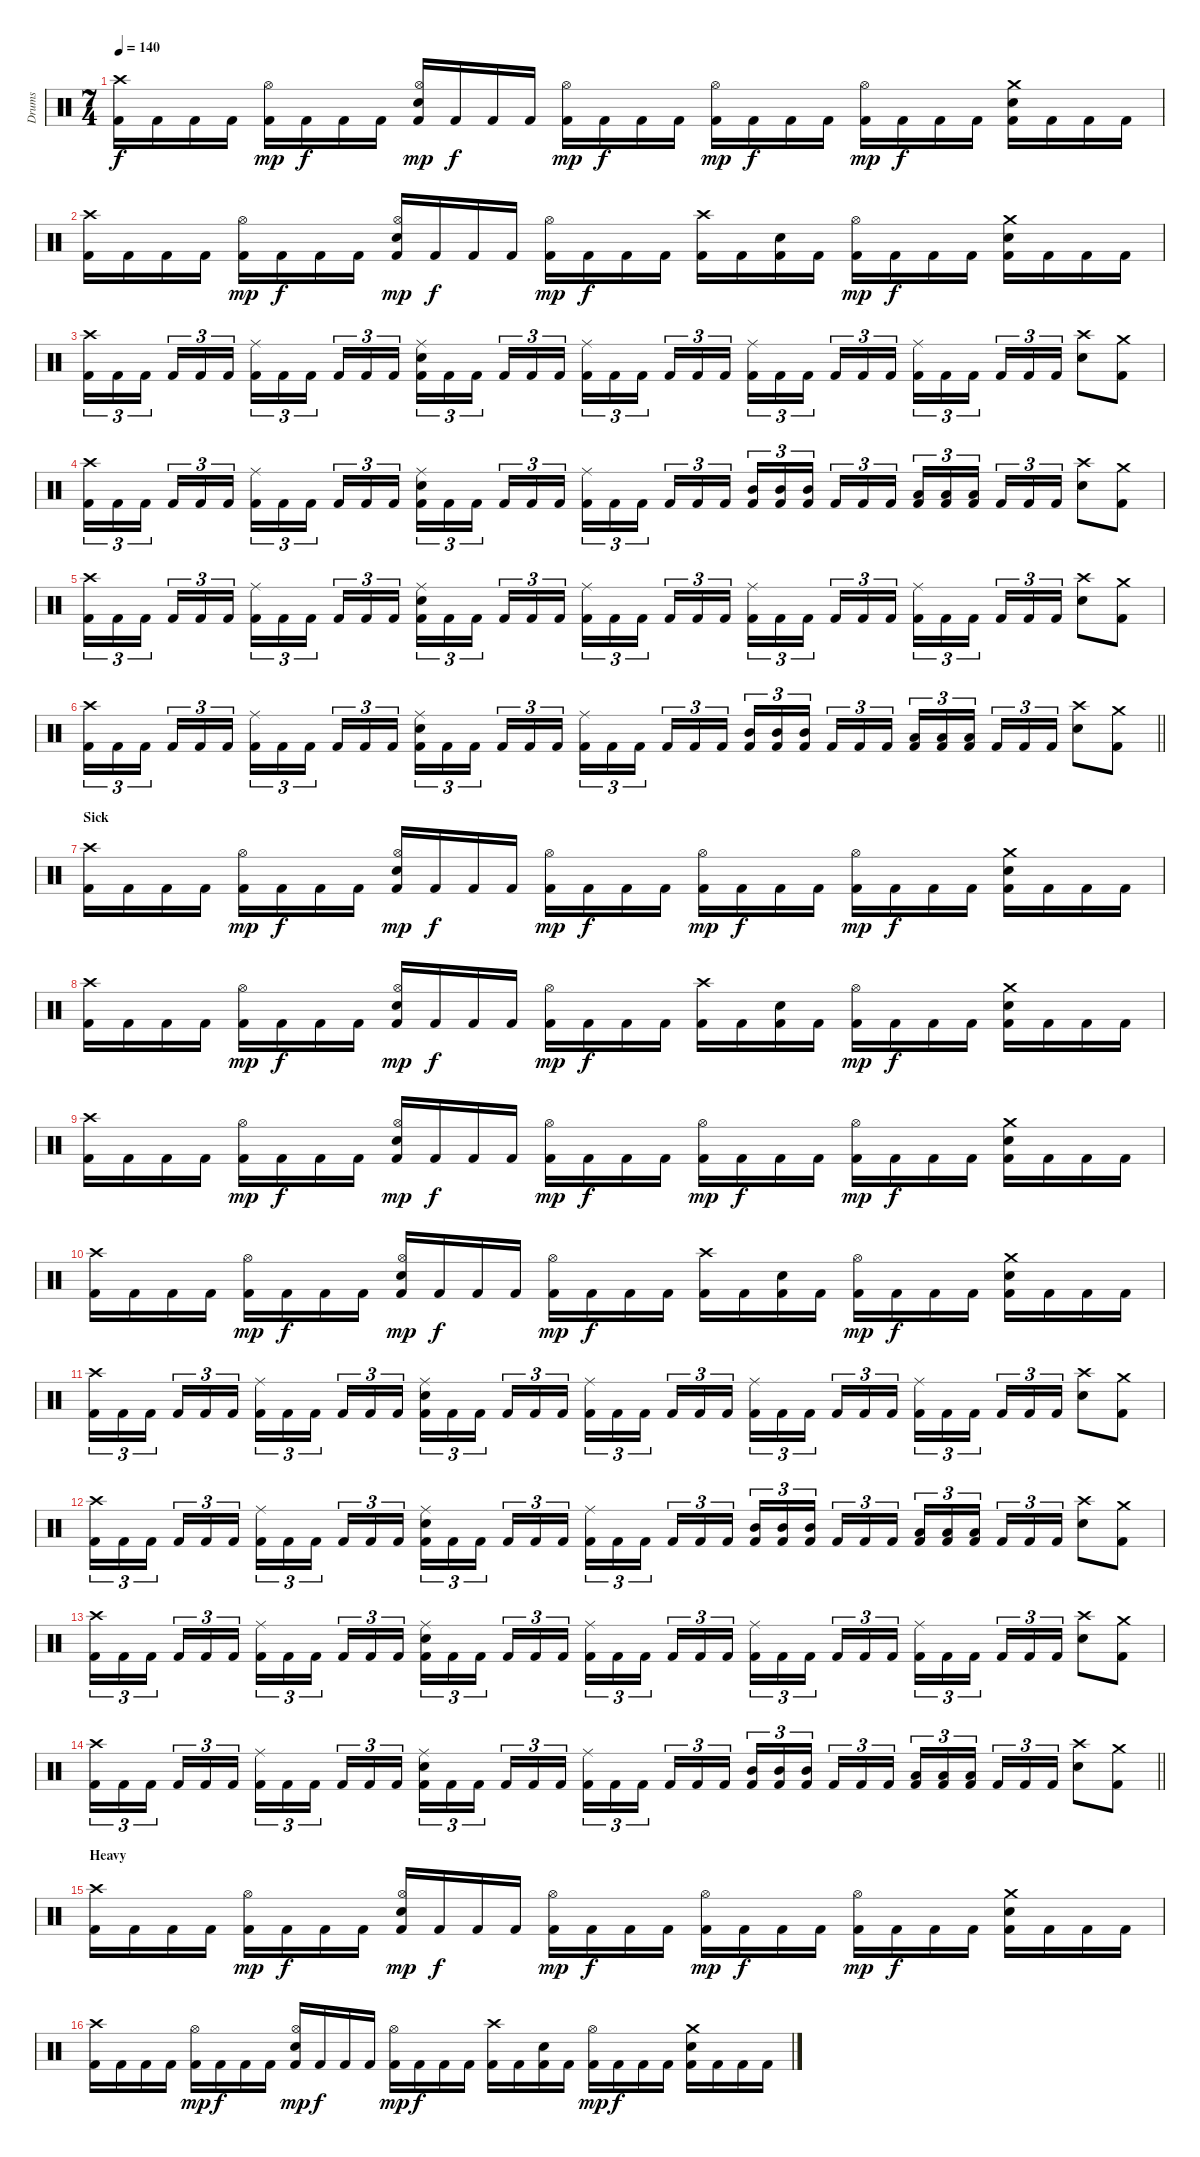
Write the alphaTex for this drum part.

\track ("Drums" "Drums") {instrument percussion}
\staff {score}
\articulation defaults
\ts (7 4)
\tempo 140
\clef neutral
\ks c
("Crash high (hit)" "Kick (hit) 2").16{dy f} "Kick (hit) 2".16 "Kick (hit) 2".16 "Kick (hit) 2".16 ("Hi-Hat (open)" "Kick (hit) 2").16{dy mp} "Kick (hit) 2".16{dy f} "Kick (hit) 2".16 "Kick (hit) 2".16 ("Hi-Hat (open)" "Snare (hit) 2" "Kick (hit) 2").16{dy mp} "Kick (hit) 2".16{dy f} "Kick (hit) 2".16 "Kick (hit) 2".16 ("Hi-Hat (open)" "Kick (hit) 2").16{dy mp} "Kick (hit) 2".16{dy f} "Kick (hit) 2".16 "Kick (hit) 2".16 ("Hi-Hat (open)" "Kick (hit) 2").16{dy mp} "Kick (hit) 2".16{dy f} "Kick (hit) 2".16 "Kick (hit) 2".16 ("Hi-Hat (open)" "Kick (hit) 2").16{dy mp} "Kick (hit) 2".16{dy f} "Kick (hit) 2".16 "Kick (hit) 2".16 ("Crash medium (hit)" "Snare (hit) 2" "Kick (hit) 2").16 "Kick (hit) 2".16 "Kick (hit) 2".16 "Kick (hit) 2".16 |
("Crash high (hit)" "Kick (hit) 2").16 "Kick (hit) 2".16 "Kick (hit) 2".16 "Kick (hit) 2".16 ("Hi-Hat (open)" "Kick (hit) 2").16{dy mp} "Kick (hit) 2".16{dy f} "Kick (hit) 2".16 "Kick (hit) 2".16 ("Hi-Hat (open)" "Snare (hit) 2" "Kick (hit) 2").16{dy mp} "Kick (hit) 2".16{dy f} "Kick (hit) 2".16 "Kick (hit) 2".16 ("Hi-Hat (open)" "Kick (hit) 2").16{dy mp} "Kick (hit) 2".16{dy f} "Kick (hit) 2".16 "Kick (hit) 2".16 ("Crash high (hit)" "Kick (hit) 2").16 "Kick (hit) 2".16 ("Snare (hit) 2" "Kick (hit) 2").16 "Kick (hit) 2".16 ("Hi-Hat (open)" "Kick (hit) 2").16{dy mp} "Kick (hit) 2".16{dy f} "Kick (hit) 2".16 "Kick (hit) 2".16 ("Crash medium (hit)" "Snare (hit) 2" "Kick (hit) 2").16 "Kick (hit) 2".16 "Kick (hit) 2".16 "Kick (hit) 2".16 |
("Crash high (hit)" "Kick (hit) 2").16{tu (3 2)} "Kick (hit) 2".16{tu (3 2)} "Kick (hit) 2".16{tu (3 2) beam splitsecondary} "Kick (hit) 2".16{tu (3 2)} "Kick (hit) 2".16{tu (3 2)} "Kick (hit) 2".16{tu (3 2)} ("Ride (middle)" "Kick (hit) 2").16{tu (3 2)} "Kick (hit) 2".16{tu (3 2)} "Kick (hit) 2".16{tu (3 2) beam splitsecondary} "Kick (hit) 2".16{tu (3 2)} "Kick (hit) 2".16{tu (3 2)} "Kick (hit) 2".16{tu (3 2)} ("Ride (middle)" "Snare (hit) 2" "Kick (hit) 2").16{tu (3 2)} "Kick (hit) 2".16{tu (3 2)} "Kick (hit) 2".16{tu (3 2) beam splitsecondary} "Kick (hit) 2".16{tu (3 2)} "Kick (hit) 2".16{tu (3 2)} "Kick (hit) 2".16{tu (3 2)} ("Ride (middle)" "Kick (hit) 2").16{tu (3 2)} "Kick (hit) 2".16{tu (3 2)} "Kick (hit) 2".16{tu (3 2) beam splitsecondary} "Kick (hit) 2".16{tu (3 2)} "Kick (hit) 2".16{tu (3 2)} "Kick (hit) 2".16{tu (3 2)} ("Ride (middle)" "Kick (hit) 2").16{tu (3 2)} "Kick (hit) 2".16{tu (3 2)} "Kick (hit) 2".16{tu (3 2) beam splitsecondary} "Kick (hit) 2".16{tu (3 2)} "Kick (hit) 2".16{tu (3 2)} "Kick (hit) 2".16{tu (3 2)} ("Ride (middle)" "Kick (hit) 2").16{tu (3 2)} "Kick (hit) 2".16{tu (3 2)} "Kick (hit) 2".16{tu (3 2) beam splitsecondary} "Kick (hit) 2".16{tu (3 2)} "Kick (hit) 2".16{tu (3 2)} "Kick (hit) 2".16{tu (3 2)} ("Crash high (hit)" "Snare (hit) 2").8 ("Crash medium (hit)" "Kick (hit) 2").8 |
("Crash high (hit)" "Kick (hit) 2").16{tu (3 2)} "Kick (hit) 2".16{tu (3 2)} "Kick (hit) 2".16{tu (3 2) beam splitsecondary} "Kick (hit) 2".16{tu (3 2)} "Kick (hit) 2".16{tu (3 2)} "Kick (hit) 2".16{tu (3 2)} ("Ride (middle)" "Kick (hit) 2").16{tu (3 2)} "Kick (hit) 2".16{tu (3 2)} "Kick (hit) 2".16{tu (3 2) beam splitsecondary} "Kick (hit) 2".16{tu (3 2)} "Kick (hit) 2".16{tu (3 2)} "Kick (hit) 2".16{tu (3 2)} ("Ride (middle)" "Snare (hit) 2" "Kick (hit) 2").16{tu (3 2)} "Kick (hit) 2".16{tu (3 2)} "Kick (hit) 2".16{tu (3 2) beam splitsecondary} "Kick (hit) 2".16{tu (3 2)} "Kick (hit) 2".16{tu (3 2)} "Kick (hit) 2".16{tu (3 2)} ("Ride (middle)" "Kick (hit) 2").16{tu (3 2)} "Kick (hit) 2".16{tu (3 2)} "Kick (hit) 2".16{tu (3 2) beam splitsecondary} "Kick (hit) 2".16{tu (3 2)} "Kick (hit) 2".16{tu (3 2)} "Kick (hit) 2".16{tu (3 2)} ("Mid Tom (hit)" "Kick (hit) 2").16{tu (3 2)} ("Mid Tom (hit)" "Kick (hit) 2").16{tu (3 2)} ("Mid Tom (hit)" "Kick (hit) 2").16{tu (3 2) beam splitsecondary} "Kick (hit) 2".16{tu (3 2)} "Kick (hit) 2".16{tu (3 2)} "Kick (hit) 2".16{tu (3 2)} ("Low Tom (hit)" "Kick (hit) 2").16{tu (3 2)} ("Low Tom (hit)" "Kick (hit) 2").16{tu (3 2)} ("Low Tom (hit)" "Kick (hit) 2").16{tu (3 2) beam splitsecondary} "Kick (hit) 2".16{tu (3 2)} "Kick (hit) 2".16{tu (3 2)} "Kick (hit) 2".16{tu (3 2)} ("Crash high (hit)" "Snare (hit) 2").8 ("Crash medium (hit)" "Kick (hit) 2").8 |
("Crash high (hit)" "Kick (hit) 2").16{tu (3 2)} "Kick (hit) 2".16{tu (3 2)} "Kick (hit) 2".16{tu (3 2) beam splitsecondary} "Kick (hit) 2".16{tu (3 2)} "Kick (hit) 2".16{tu (3 2)} "Kick (hit) 2".16{tu (3 2)} ("Ride (middle)" "Kick (hit) 2").16{tu (3 2)} "Kick (hit) 2".16{tu (3 2)} "Kick (hit) 2".16{tu (3 2) beam splitsecondary} "Kick (hit) 2".16{tu (3 2)} "Kick (hit) 2".16{tu (3 2)} "Kick (hit) 2".16{tu (3 2)} ("Ride (middle)" "Snare (hit) 2" "Kick (hit) 2").16{tu (3 2)} "Kick (hit) 2".16{tu (3 2)} "Kick (hit) 2".16{tu (3 2) beam splitsecondary} "Kick (hit) 2".16{tu (3 2)} "Kick (hit) 2".16{tu (3 2)} "Kick (hit) 2".16{tu (3 2)} ("Ride (middle)" "Kick (hit) 2").16{tu (3 2)} "Kick (hit) 2".16{tu (3 2)} "Kick (hit) 2".16{tu (3 2) beam splitsecondary} "Kick (hit) 2".16{tu (3 2)} "Kick (hit) 2".16{tu (3 2)} "Kick (hit) 2".16{tu (3 2)} ("Ride (middle)" "Kick (hit) 2").16{tu (3 2)} "Kick (hit) 2".16{tu (3 2)} "Kick (hit) 2".16{tu (3 2) beam splitsecondary} "Kick (hit) 2".16{tu (3 2)} "Kick (hit) 2".16{tu (3 2)} "Kick (hit) 2".16{tu (3 2)} ("Ride (middle)" "Kick (hit) 2").16{tu (3 2)} "Kick (hit) 2".16{tu (3 2)} "Kick (hit) 2".16{tu (3 2) beam splitsecondary} "Kick (hit) 2".16{tu (3 2)} "Kick (hit) 2".16{tu (3 2)} "Kick (hit) 2".16{tu (3 2)} ("Crash high (hit)" "Snare (hit) 2").8 ("Crash medium (hit)" "Kick (hit) 2").8 |
\barLineRight lightlight
("Crash high (hit)" "Kick (hit) 2").16{tu (3 2)} "Kick (hit) 2".16{tu (3 2)} "Kick (hit) 2".16{tu (3 2) beam splitsecondary} "Kick (hit) 2".16{tu (3 2)} "Kick (hit) 2".16{tu (3 2)} "Kick (hit) 2".16{tu (3 2)} ("Ride (middle)" "Kick (hit) 2").16{tu (3 2)} "Kick (hit) 2".16{tu (3 2)} "Kick (hit) 2".16{tu (3 2) beam splitsecondary} "Kick (hit) 2".16{tu (3 2)} "Kick (hit) 2".16{tu (3 2)} "Kick (hit) 2".16{tu (3 2)} ("Ride (middle)" "Snare (hit) 2" "Kick (hit) 2").16{tu (3 2)} "Kick (hit) 2".16{tu (3 2)} "Kick (hit) 2".16{tu (3 2) beam splitsecondary} "Kick (hit) 2".16{tu (3 2)} "Kick (hit) 2".16{tu (3 2)} "Kick (hit) 2".16{tu (3 2)} ("Ride (middle)" "Kick (hit) 2").16{tu (3 2)} "Kick (hit) 2".16{tu (3 2)} "Kick (hit) 2".16{tu (3 2) beam splitsecondary} "Kick (hit) 2".16{tu (3 2)} "Kick (hit) 2".16{tu (3 2)} "Kick (hit) 2".16{tu (3 2)} ("Mid Tom (hit)" "Kick (hit) 2").16{tu (3 2)} ("Mid Tom (hit)" "Kick (hit) 2").16{tu (3 2)} ("Mid Tom (hit)" "Kick (hit) 2").16{tu (3 2) beam splitsecondary} "Kick (hit) 2".16{tu (3 2)} "Kick (hit) 2".16{tu (3 2)} "Kick (hit) 2".16{tu (3 2)} ("Low Tom (hit)" "Kick (hit) 2").16{tu (3 2)} ("Low Tom (hit)" "Kick (hit) 2").16{tu (3 2)} ("Low Tom (hit)" "Kick (hit) 2").16{tu (3 2) beam splitsecondary} "Kick (hit) 2".16{tu (3 2)} "Kick (hit) 2".16{tu (3 2)} "Kick (hit) 2".16{tu (3 2)} ("Crash high (hit)" "Snare (hit) 2").8 ("Crash medium (hit)" "Kick (hit) 2").8 |
\section ("" "Sick")
("Crash high (hit)" "Kick (hit) 2").16 "Kick (hit) 2".16 "Kick (hit) 2".16 "Kick (hit) 2".16 ("Hi-Hat (open)" "Kick (hit) 2").16{dy mp} "Kick (hit) 2".16{dy f} "Kick (hit) 2".16 "Kick (hit) 2".16 ("Hi-Hat (open)" "Snare (hit) 2" "Kick (hit) 2").16{dy mp} "Kick (hit) 2".16{dy f} "Kick (hit) 2".16 "Kick (hit) 2".16 ("Hi-Hat (open)" "Kick (hit) 2").16{dy mp} "Kick (hit) 2".16{dy f} "Kick (hit) 2".16 "Kick (hit) 2".16 ("Hi-Hat (open)" "Kick (hit) 2").16{dy mp} "Kick (hit) 2".16{dy f} "Kick (hit) 2".16 "Kick (hit) 2".16 ("Hi-Hat (open)" "Kick (hit) 2").16{dy mp} "Kick (hit) 2".16{dy f} "Kick (hit) 2".16 "Kick (hit) 2".16 ("Crash medium (hit)" "Snare (hit) 2" "Kick (hit) 2").16 "Kick (hit) 2".16 "Kick (hit) 2".16 "Kick (hit) 2".16 |
("Crash high (hit)" "Kick (hit) 2").16 "Kick (hit) 2".16 "Kick (hit) 2".16 "Kick (hit) 2".16 ("Hi-Hat (open)" "Kick (hit) 2").16{dy mp} "Kick (hit) 2".16{dy f} "Kick (hit) 2".16 "Kick (hit) 2".16 ("Hi-Hat (open)" "Snare (hit) 2" "Kick (hit) 2").16{dy mp} "Kick (hit) 2".16{dy f} "Kick (hit) 2".16 "Kick (hit) 2".16 ("Hi-Hat (open)" "Kick (hit) 2").16{dy mp} "Kick (hit) 2".16{dy f} "Kick (hit) 2".16 "Kick (hit) 2".16 ("Crash high (hit)" "Kick (hit) 2").16 "Kick (hit) 2".16 ("Snare (hit) 2" "Kick (hit) 2").16 "Kick (hit) 2".16 ("Hi-Hat (open)" "Kick (hit) 2").16{dy mp} "Kick (hit) 2".16{dy f} "Kick (hit) 2".16 "Kick (hit) 2".16 ("Crash medium (hit)" "Snare (hit) 2" "Kick (hit) 2").16 "Kick (hit) 2".16 "Kick (hit) 2".16 "Kick (hit) 2".16 |
("Crash high (hit)" "Kick (hit) 2").16 "Kick (hit) 2".16 "Kick (hit) 2".16 "Kick (hit) 2".16 ("Hi-Hat (open)" "Kick (hit) 2").16{dy mp} "Kick (hit) 2".16{dy f} "Kick (hit) 2".16 "Kick (hit) 2".16 ("Hi-Hat (open)" "Snare (hit) 2" "Kick (hit) 2").16{dy mp} "Kick (hit) 2".16{dy f} "Kick (hit) 2".16 "Kick (hit) 2".16 ("Hi-Hat (open)" "Kick (hit) 2").16{dy mp} "Kick (hit) 2".16{dy f} "Kick (hit) 2".16 "Kick (hit) 2".16 ("Hi-Hat (open)" "Kick (hit) 2").16{dy mp} "Kick (hit) 2".16{dy f} "Kick (hit) 2".16 "Kick (hit) 2".16 ("Hi-Hat (open)" "Kick (hit) 2").16{dy mp} "Kick (hit) 2".16{dy f} "Kick (hit) 2".16 "Kick (hit) 2".16 ("Crash medium (hit)" "Snare (hit) 2" "Kick (hit) 2").16 "Kick (hit) 2".16 "Kick (hit) 2".16 "Kick (hit) 2".16 |
("Crash high (hit)" "Kick (hit) 2").16 "Kick (hit) 2".16 "Kick (hit) 2".16 "Kick (hit) 2".16 ("Hi-Hat (open)" "Kick (hit) 2").16{dy mp} "Kick (hit) 2".16{dy f} "Kick (hit) 2".16 "Kick (hit) 2".16 ("Hi-Hat (open)" "Snare (hit) 2" "Kick (hit) 2").16{dy mp} "Kick (hit) 2".16{dy f} "Kick (hit) 2".16 "Kick (hit) 2".16 ("Hi-Hat (open)" "Kick (hit) 2").16{dy mp} "Kick (hit) 2".16{dy f} "Kick (hit) 2".16 "Kick (hit) 2".16 ("Crash high (hit)" "Kick (hit) 2").16 "Kick (hit) 2".16 ("Snare (hit) 2" "Kick (hit) 2").16 "Kick (hit) 2".16 ("Hi-Hat (open)" "Kick (hit) 2").16{dy mp} "Kick (hit) 2".16{dy f} "Kick (hit) 2".16 "Kick (hit) 2".16 ("Crash medium (hit)" "Snare (hit) 2" "Kick (hit) 2").16 "Kick (hit) 2".16 "Kick (hit) 2".16 "Kick (hit) 2".16 |
("Crash high (hit)" "Kick (hit) 2").16{tu (3 2)} "Kick (hit) 2".16{tu (3 2)} "Kick (hit) 2".16{tu (3 2) beam splitsecondary} "Kick (hit) 2".16{tu (3 2)} "Kick (hit) 2".16{tu (3 2)} "Kick (hit) 2".16{tu (3 2)} ("Ride (middle)" "Kick (hit) 2").16{tu (3 2)} "Kick (hit) 2".16{tu (3 2)} "Kick (hit) 2".16{tu (3 2) beam splitsecondary} "Kick (hit) 2".16{tu (3 2)} "Kick (hit) 2".16{tu (3 2)} "Kick (hit) 2".16{tu (3 2)} ("Ride (middle)" "Snare (hit) 2" "Kick (hit) 2").16{tu (3 2)} "Kick (hit) 2".16{tu (3 2)} "Kick (hit) 2".16{tu (3 2) beam splitsecondary} "Kick (hit) 2".16{tu (3 2)} "Kick (hit) 2".16{tu (3 2)} "Kick (hit) 2".16{tu (3 2)} ("Ride (middle)" "Kick (hit) 2").16{tu (3 2)} "Kick (hit) 2".16{tu (3 2)} "Kick (hit) 2".16{tu (3 2) beam splitsecondary} "Kick (hit) 2".16{tu (3 2)} "Kick (hit) 2".16{tu (3 2)} "Kick (hit) 2".16{tu (3 2)} ("Ride (middle)" "Kick (hit) 2").16{tu (3 2)} "Kick (hit) 2".16{tu (3 2)} "Kick (hit) 2".16{tu (3 2) beam splitsecondary} "Kick (hit) 2".16{tu (3 2)} "Kick (hit) 2".16{tu (3 2)} "Kick (hit) 2".16{tu (3 2)} ("Ride (middle)" "Kick (hit) 2").16{tu (3 2)} "Kick (hit) 2".16{tu (3 2)} "Kick (hit) 2".16{tu (3 2) beam splitsecondary} "Kick (hit) 2".16{tu (3 2)} "Kick (hit) 2".16{tu (3 2)} "Kick (hit) 2".16{tu (3 2)} ("Crash high (hit)" "Snare (hit) 2").8 ("Crash medium (hit)" "Kick (hit) 2").8 |
("Crash high (hit)" "Kick (hit) 2").16{tu (3 2)} "Kick (hit) 2".16{tu (3 2)} "Kick (hit) 2".16{tu (3 2) beam splitsecondary} "Kick (hit) 2".16{tu (3 2)} "Kick (hit) 2".16{tu (3 2)} "Kick (hit) 2".16{tu (3 2)} ("Ride (middle)" "Kick (hit) 2").16{tu (3 2)} "Kick (hit) 2".16{tu (3 2)} "Kick (hit) 2".16{tu (3 2) beam splitsecondary} "Kick (hit) 2".16{tu (3 2)} "Kick (hit) 2".16{tu (3 2)} "Kick (hit) 2".16{tu (3 2)} ("Ride (middle)" "Snare (hit) 2" "Kick (hit) 2").16{tu (3 2)} "Kick (hit) 2".16{tu (3 2)} "Kick (hit) 2".16{tu (3 2) beam splitsecondary} "Kick (hit) 2".16{tu (3 2)} "Kick (hit) 2".16{tu (3 2)} "Kick (hit) 2".16{tu (3 2)} ("Ride (middle)" "Kick (hit) 2").16{tu (3 2)} "Kick (hit) 2".16{tu (3 2)} "Kick (hit) 2".16{tu (3 2) beam splitsecondary} "Kick (hit) 2".16{tu (3 2)} "Kick (hit) 2".16{tu (3 2)} "Kick (hit) 2".16{tu (3 2)} ("Mid Tom (hit)" "Kick (hit) 2").16{tu (3 2)} ("Mid Tom (hit)" "Kick (hit) 2").16{tu (3 2)} ("Mid Tom (hit)" "Kick (hit) 2").16{tu (3 2) beam splitsecondary} "Kick (hit) 2".16{tu (3 2)} "Kick (hit) 2".16{tu (3 2)} "Kick (hit) 2".16{tu (3 2)} ("Low Tom (hit)" "Kick (hit) 2").16{tu (3 2)} ("Low Tom (hit)" "Kick (hit) 2").16{tu (3 2)} ("Low Tom (hit)" "Kick (hit) 2").16{tu (3 2) beam splitsecondary} "Kick (hit) 2".16{tu (3 2)} "Kick (hit) 2".16{tu (3 2)} "Kick (hit) 2".16{tu (3 2)} ("Crash high (hit)" "Snare (hit) 2").8 ("Crash medium (hit)" "Kick (hit) 2").8 |
("Crash high (hit)" "Kick (hit) 2").16{tu (3 2)} "Kick (hit) 2".16{tu (3 2)} "Kick (hit) 2".16{tu (3 2) beam splitsecondary} "Kick (hit) 2".16{tu (3 2)} "Kick (hit) 2".16{tu (3 2)} "Kick (hit) 2".16{tu (3 2)} ("Ride (middle)" "Kick (hit) 2").16{tu (3 2)} "Kick (hit) 2".16{tu (3 2)} "Kick (hit) 2".16{tu (3 2) beam splitsecondary} "Kick (hit) 2".16{tu (3 2)} "Kick (hit) 2".16{tu (3 2)} "Kick (hit) 2".16{tu (3 2)} ("Ride (middle)" "Snare (hit) 2" "Kick (hit) 2").16{tu (3 2)} "Kick (hit) 2".16{tu (3 2)} "Kick (hit) 2".16{tu (3 2) beam splitsecondary} "Kick (hit) 2".16{tu (3 2)} "Kick (hit) 2".16{tu (3 2)} "Kick (hit) 2".16{tu (3 2)} ("Ride (middle)" "Kick (hit) 2").16{tu (3 2)} "Kick (hit) 2".16{tu (3 2)} "Kick (hit) 2".16{tu (3 2) beam splitsecondary} "Kick (hit) 2".16{tu (3 2)} "Kick (hit) 2".16{tu (3 2)} "Kick (hit) 2".16{tu (3 2)} ("Ride (middle)" "Kick (hit) 2").16{tu (3 2)} "Kick (hit) 2".16{tu (3 2)} "Kick (hit) 2".16{tu (3 2) beam splitsecondary} "Kick (hit) 2".16{tu (3 2)} "Kick (hit) 2".16{tu (3 2)} "Kick (hit) 2".16{tu (3 2)} ("Ride (middle)" "Kick (hit) 2").16{tu (3 2)} "Kick (hit) 2".16{tu (3 2)} "Kick (hit) 2".16{tu (3 2) beam splitsecondary} "Kick (hit) 2".16{tu (3 2)} "Kick (hit) 2".16{tu (3 2)} "Kick (hit) 2".16{tu (3 2)} ("Crash high (hit)" "Snare (hit) 2").8 ("Crash medium (hit)" "Kick (hit) 2").8 |
\barLineRight lightlight
("Crash high (hit)" "Kick (hit) 2").16{tu (3 2)} "Kick (hit) 2".16{tu (3 2)} "Kick (hit) 2".16{tu (3 2) beam splitsecondary} "Kick (hit) 2".16{tu (3 2)} "Kick (hit) 2".16{tu (3 2)} "Kick (hit) 2".16{tu (3 2)} ("Ride (middle)" "Kick (hit) 2").16{tu (3 2)} "Kick (hit) 2".16{tu (3 2)} "Kick (hit) 2".16{tu (3 2) beam splitsecondary} "Kick (hit) 2".16{tu (3 2)} "Kick (hit) 2".16{tu (3 2)} "Kick (hit) 2".16{tu (3 2)} ("Ride (middle)" "Snare (hit) 2" "Kick (hit) 2").16{tu (3 2)} "Kick (hit) 2".16{tu (3 2)} "Kick (hit) 2".16{tu (3 2) beam splitsecondary} "Kick (hit) 2".16{tu (3 2)} "Kick (hit) 2".16{tu (3 2)} "Kick (hit) 2".16{tu (3 2)} ("Ride (middle)" "Kick (hit) 2").16{tu (3 2)} "Kick (hit) 2".16{tu (3 2)} "Kick (hit) 2".16{tu (3 2) beam splitsecondary} "Kick (hit) 2".16{tu (3 2)} "Kick (hit) 2".16{tu (3 2)} "Kick (hit) 2".16{tu (3 2)} ("Mid Tom (hit)" "Kick (hit) 2").16{tu (3 2)} ("Mid Tom (hit)" "Kick (hit) 2").16{tu (3 2)} ("Mid Tom (hit)" "Kick (hit) 2").16{tu (3 2) beam splitsecondary} "Kick (hit) 2".16{tu (3 2)} "Kick (hit) 2".16{tu (3 2)} "Kick (hit) 2".16{tu (3 2)} ("Low Tom (hit)" "Kick (hit) 2").16{tu (3 2)} ("Low Tom (hit)" "Kick (hit) 2").16{tu (3 2)} ("Low Tom (hit)" "Kick (hit) 2").16{tu (3 2) beam splitsecondary} "Kick (hit) 2".16{tu (3 2)} "Kick (hit) 2".16{tu (3 2)} "Kick (hit) 2".16{tu (3 2)} ("Crash high (hit)" "Snare (hit) 2").8 ("Crash medium (hit)" "Kick (hit) 2").8 |
\section ("" "Heavy")
("Crash high (hit)" "Kick (hit) 2").16 "Kick (hit) 2".16 "Kick (hit) 2".16 "Kick (hit) 2".16 ("Hi-Hat (open)" "Kick (hit) 2").16{dy mp} "Kick (hit) 2".16{dy f} "Kick (hit) 2".16 "Kick (hit) 2".16 ("Hi-Hat (open)" "Snare (hit) 2" "Kick (hit) 2").16{dy mp} "Kick (hit) 2".16{dy f} "Kick (hit) 2".16 "Kick (hit) 2".16 ("Hi-Hat (open)" "Kick (hit) 2").16{dy mp} "Kick (hit) 2".16{dy f} "Kick (hit) 2".16 "Kick (hit) 2".16 ("Hi-Hat (open)" "Kick (hit) 2").16{dy mp} "Kick (hit) 2".16{dy f} "Kick (hit) 2".16 "Kick (hit) 2".16 ("Hi-Hat (open)" "Kick (hit) 2").16{dy mp} "Kick (hit) 2".16{dy f} "Kick (hit) 2".16 "Kick (hit) 2".16 ("Crash medium (hit)" "Snare (hit) 2" "Kick (hit) 2").16 "Kick (hit) 2".16 "Kick (hit) 2".16 "Kick (hit) 2".16 |
("Crash high (hit)" "Kick (hit) 2").16 "Kick (hit) 2".16 "Kick (hit) 2".16 "Kick (hit) 2".16 ("Hi-Hat (open)" "Kick (hit) 2").16{dy mp} "Kick (hit) 2".16{dy f} "Kick (hit) 2".16 "Kick (hit) 2".16 ("Hi-Hat (open)" "Snare (hit) 2" "Kick (hit) 2").16{dy mp} "Kick (hit) 2".16{dy f} "Kick (hit) 2".16 "Kick (hit) 2".16 ("Hi-Hat (open)" "Kick (hit) 2").16{dy mp} "Kick (hit) 2".16{dy f} "Kick (hit) 2".16 "Kick (hit) 2".16 ("Crash high (hit)" "Kick (hit) 2").16 "Kick (hit) 2".16 ("Snare (hit) 2" "Kick (hit) 2").16 "Kick (hit) 2".16 ("Hi-Hat (open)" "Kick (hit) 2").16{dy mp} "Kick (hit) 2".16{dy f} "Kick (hit) 2".16 "Kick (hit) 2".16 ("Crash medium (hit)" "Snare (hit) 2" "Kick (hit) 2").16 "Kick (hit) 2".16 "Kick (hit) 2".16 "Kick (hit) 2".16
